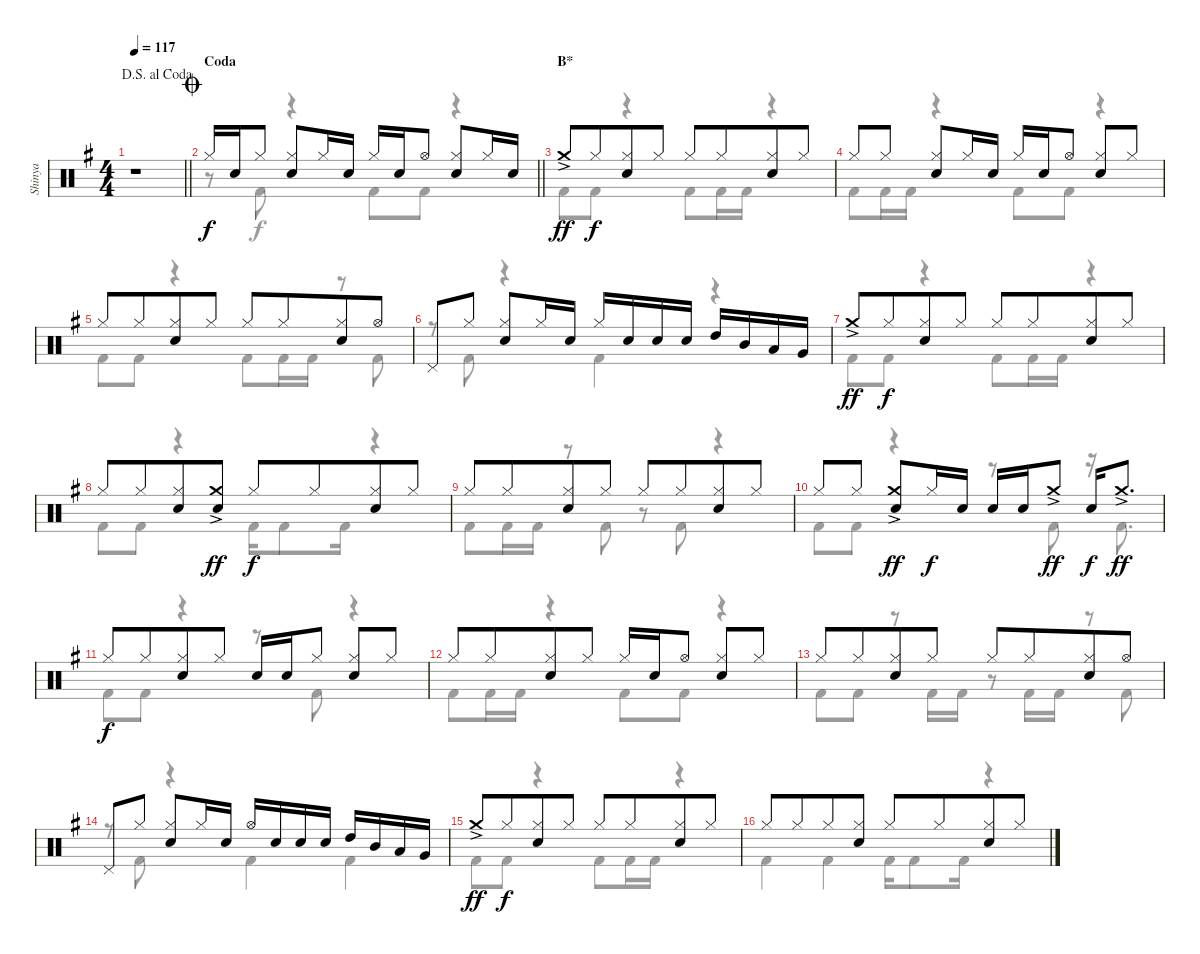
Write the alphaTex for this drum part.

\track ("Shinya" "Shinya") {instrument percussion}
\staff {score}
\articulation defaults
\voice
\ts (4 4)
\jump dalsegnoalcoda
\tempo 117
\clef neutral
\barLineRight lightlight
\ks eminor
r.1{dy f} |
\section ("" "Coda")
\jump coda
\barLineRight lightlight "Hi-Hat (closed)".16 "Snare (hit) 2".16 "Hi-Hat (closed)".8
("Hi-Hat (closed)" "Snare (hit) 2").8 "Hi-Hat (closed)".16 "Snare (hit) 2".16 "Hi-Hat (closed)".16 "Snare (hit) 2".16 "Hi-Hat (open)".8 ("Hi-Hat (closed)" "Snare (hit) 2").8 "Hi-Hat (closed)".16 "Snare (hit) 2".16 |
\section ("" "B*")
"Crash medium (hit)"{ac}.8{dy ff} "Hi-Hat (closed)".8{dy f beam merge} ("Hi-Hat (closed)" "Snare (hit) 2").8 "Hi-Hat (closed)".8 "Hi-Hat (closed)".8 "Hi-Hat (closed)".8{beam merge} ("Hi-Hat (closed)" "Snare (hit) 2").8 "Hi-Hat (closed)".8 |
"Hi-Hat (closed)".8 "Hi-Hat (closed)".8 ("Hi-Hat (closed)" "Snare (hit) 2").8 "Hi-Hat (closed)".16 "Snare (hit) 2".16 "Hi-Hat (closed)".16 "Snare (hit) 2".16 "Hi-Hat (open)".8 ("Hi-Hat (closed)" "Snare (hit) 2").8 "Hi-Hat (closed)".8 |
"Hi-Hat (closed)".8 "Hi-Hat (closed)".8{beam merge} ("Hi-Hat (closed)" "Snare (hit) 2").8 "Hi-Hat (closed)".8 "Hi-Hat (closed)".8 "Hi-Hat (closed)".8{beam merge} ("Hi-Hat (closed)" "Snare (hit) 2").8 "Hi-Hat (open)".8 |
"Pedal Hi-Hat (hit)".8 "Hi-Hat (closed)".8 ("Hi-Hat (closed)" "Snare (hit) 2").8 "Hi-Hat (closed)".16 "Snare (hit) 2".16 "Hi-Hat (closed)".16 "Snare (hit) 2".16 "Snare (hit) 2".16 "Snare (hit) 2".16 "High Tom (hit)".16 "Mid Tom (hit)".16 "Low Tom (hit)".16 "Very Low Tom (hit)".16 |
"Crash medium (hit)"{ac}.8{dy ff} "Hi-Hat (closed)".8{dy f beam merge} ("Hi-Hat (closed)" "Snare (hit) 2").8 "Hi-Hat (closed)".8 "Hi-Hat (closed)".8 "Hi-Hat (closed)".8{beam merge} ("Hi-Hat (closed)" "Snare (hit) 2").8 "Hi-Hat (closed)".8 |
"Hi-Hat (closed)".8 "Hi-Hat (closed)".8{beam merge} ("Hi-Hat (closed)" "Snare (hit) 2").8 ("Crash medium (hit)"{ac} "Snare (hit) 2").8{dy ff} "Hi-Hat (closed)".8{dy f} "Hi-Hat (closed)".8{beam merge} ("Hi-Hat (closed)" "Snare (hit) 2").8 "Hi-Hat (closed)".8 |
"Hi-Hat (closed)".8 "Hi-Hat (closed)".8{beam merge} ("Hi-Hat (closed)" "Snare (hit) 2").8 "Hi-Hat (closed)".8 "Hi-Hat (closed)".8 "Hi-Hat (closed)".8{beam merge} ("Hi-Hat (closed)" "Snare (hit) 2").8 "Hi-Hat (closed)".8 |
"Hi-Hat (closed)".8 "Hi-Hat (closed)".8 ("Crash medium (hit)"{ac} "Snare (hit) 2").8{dy ff} "Hi-Hat (closed)".16{dy f} "Snare (hit) 2".16 "Snare (hit) 2".16 "Snare (hit) 2".16 "Crash medium (hit)"{ac}.8{dy ff} "Snare (hit) 2".16{dy f} "Crash medium (hit)"{ac}.8{d dy ff} |
"Hi-Hat (closed)".8{dy f} "Hi-Hat (closed)".8{beam merge} ("Hi-Hat (closed)" "Snare (hit) 2").8 "Hi-Hat (closed)".8 "Snare (hit) 2".16 "Snare (hit) 2".16 "Hi-Hat (closed)".8 ("Hi-Hat (closed)" "Snare (hit) 2").8 "Hi-Hat (closed)".8 |
"Hi-Hat (closed)".8 "Hi-Hat (closed)".8{beam merge} ("Hi-Hat (closed)" "Snare (hit) 2").8 "Hi-Hat (closed)".8 "Hi-Hat (closed)".16 "Snare (hit) 2".16 "Hi-Hat (open)".8 ("Hi-Hat (closed)" "Snare (hit) 2").8 "Hi-Hat (closed)".8 |
"Hi-Hat (closed)".8 "Hi-Hat (closed)".8{beam merge} ("Hi-Hat (closed)" "Snare (hit) 2").8 "Hi-Hat (closed)".8 "Hi-Hat (closed)".8 "Hi-Hat (closed)".8{beam merge} ("Hi-Hat (closed)" "Snare (hit) 2").8 "Hi-Hat (open)".8 |
"Pedal Hi-Hat (hit)".8 "Hi-Hat (closed)".8 ("Hi-Hat (closed)" "Snare (hit) 2").8 "Hi-Hat (closed)".16 "Snare (hit) 2".16 "Hi-Hat (open)".16 "Snare (hit) 2".16 "Snare (hit) 2".16 "Snare (hit) 2".16 "High Tom (hit)".16 "Mid Tom (hit)".16 "Low Tom (hit)".16 "Very Low Tom (hit)".16 |
"Crash medium (hit)"{ac}.8{dy ff} "Hi-Hat (closed)".8{dy f beam merge} ("Hi-Hat (closed)" "Snare (hit) 2").8 "Hi-Hat (closed)".8 "Hi-Hat (closed)".8 "Hi-Hat (closed)".8{beam merge} ("Hi-Hat (closed)" "Snare (hit) 2").8 "Hi-Hat (closed)".8 |
"Hi-Hat (closed)".8 "Hi-Hat (closed)".8{beam merge} "Hi-Hat (closed)".8 ("Hi-Hat (closed)" "Snare (hit) 2").8 "Hi-Hat (closed)".8 "Hi-Hat (closed)".8{beam merge} ("Hi-Hat (closed)" "Snare (hit) 2").8 "Hi-Hat (closed)".8
\voice
\clef neutral
\ottava regular
\simile none
\barLineRight lightlight
\ks eminor
r.1{dy f} |
\barLineRight lightlight
r.8 "Kick (hit) 2".8 r.4 "Kick (hit) 2".8 "Kick (hit) 2".8 r.4 |
"Kick (hit) 2".8 "Kick (hit) 2".8 r.4 "Kick (hit) 2".8 "Kick (hit) 2".16 "Kick (hit) 2".16 r.4 |
"Kick (hit) 2".8 "Kick (hit) 2".16 "Kick (hit) 2".16 r.4 "Kick (hit) 2".8 "Kick (hit) 2".8 r.4 |
"Kick (hit) 2".8 "Kick (hit) 2".8 r.4 "Kick (hit) 2".8 "Kick (hit) 2".16 "Kick (hit) 2".16 r.8 "Kick (hit) 2".8 |
r.8 "Kick (hit) 2".8 r.4 "Kick (hit) 2".4 r.4 |
"Kick (hit) 2".8 "Kick (hit) 2".8 r.4 "Kick (hit) 2".8 "Kick (hit) 2".16 "Kick (hit) 2".16 r.4 |
"Kick (hit) 2".8 "Kick (hit) 2".8 r.4 "Kick (hit) 2".16 "Kick (hit) 2".8 "Kick (hit) 2".16 r.4 |
"Kick (hit) 2".8 "Kick (hit) 2".16 "Kick (hit) 2".16 r.8 "Kick (hit) 2".8 r.8 "Kick (hit) 2".8 r.4 |
"Kick (hit) 2".8 "Kick (hit) 2".8 r.4 r.8 "Kick (hit) 2".8 r.16 "Kick (hit) 2".8{d} |
"Kick (hit) 2".8 "Kick (hit) 2".8 r.4 r.8 "Kick (hit) 2".8 r.4 |
"Kick (hit) 2".8 "Kick (hit) 2".16 "Kick (hit) 2".16 r.4 "Kick (hit) 2".8 "Kick (hit) 2".8 r.4 |
"Kick (hit) 2".8 "Kick (hit) 2".8 r.8 "Kick (hit) 2".16 "Kick (hit) 2".16 r.8 "Kick (hit) 2".16 "Kick (hit) 2".16 r.8 "Kick (hit) 2".8 |
r.8 "Kick (hit) 2".8 r.4 "Kick (hit) 2".4 "Kick (hit) 2".4 |
"Kick (hit) 2".8 "Kick (hit) 2".8 r.4 "Kick (hit) 2".8 "Kick (hit) 2".16 "Kick (hit) 2".16 r.4 |
"Kick (hit) 2".4 "Kick (hit) 2".4 "Kick (hit) 2".16 "Kick (hit) 2".8 "Kick (hit) 2".16 r.4
